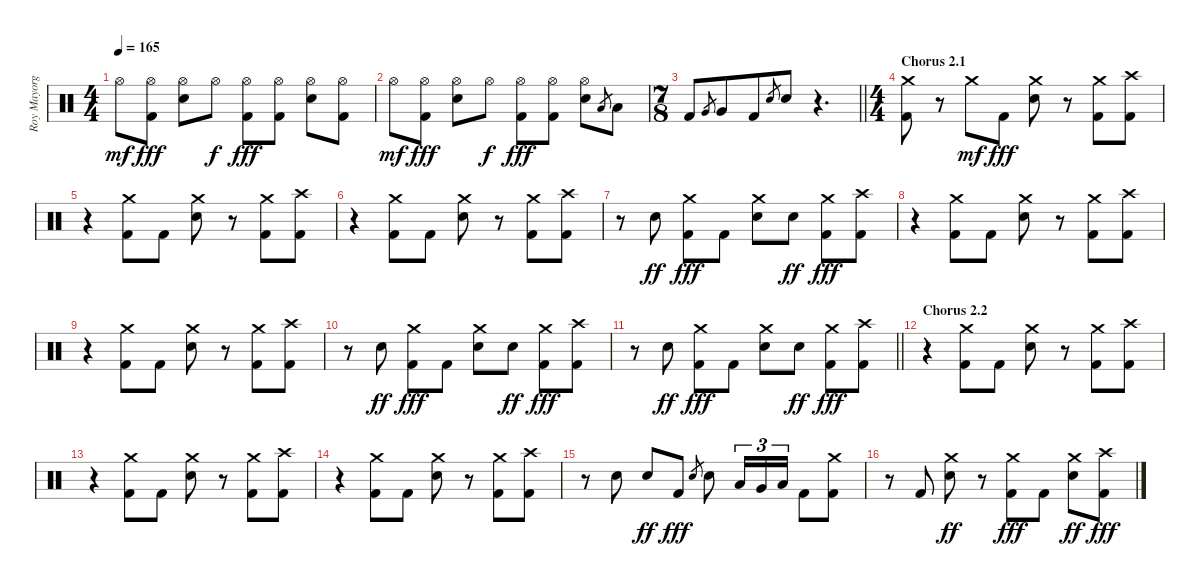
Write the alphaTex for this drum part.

\track ("Roy Mayorga" "Roy Mayorg") {instrument percussion}
\staff {score}
\articulation defaults
\ts (4 4)
\tempo 165
\clef neutral
\ks c "Hi-Hat (open)".8{dy mf}
("Hi-Hat (open)" "Kick (hit) 2").8{dy fff} ("Hi-Hat (open)" "Electric Snare (hit)").8 "Hi-Hat (open)".8{dy f} ("Hi-Hat (open)" "Kick (hit) 2").8{dy fff} ("Hi-Hat (open)" "Kick (hit) 2").8 ("Hi-Hat (open)" "Electric Snare (hit)").8 ("Hi-Hat (open)" "Kick (hit) 2").8 |
"Hi-Hat (open)".8{dy mf} ("Hi-Hat (open)" "Kick (hit) 2").8{dy fff} ("Hi-Hat (open)" "Electric Snare (hit)").8 "Hi-Hat (open)".8{dy f} ("Hi-Hat (open)" "Kick (hit) 2").8{dy fff} ("Hi-Hat (open)" "Kick (hit) 2").8 ("Hi-Hat (open)" "Electric Snare (hit)").8 "Low Tom (hit)".8{gr} "Low Tom (hit)".8 |
\ts (7 8)
\barLineRight lightlight "Kick (hit) 2".8 "Very Low Tom (hit)".8{gr} "Very Low Tom (hit)".8 "Kick (hit) 2".8 "Electric Snare (hit)".8{gr} "Electric Snare (hit)".8
r.4{d} |
\ts (4 4)
\section ("" "Chorus 2.1")
("Crash medium (hit)" "Kick (hit) 2").8 r.8 "Crash medium (hit)".8{dy mf} "Kick (hit) 2".8{dy fff} ("Crash medium (hit)" "Electric Snare (hit)").8 r.8 ("Crash medium (hit)" "Kick (hit) 2").8 ("Crash high (hit)" "Kick (hit) 2").8 |
r.4 ("Crash medium (hit)" "Kick (hit) 2").8 "Kick (hit) 2".8 ("Crash medium (hit)" "Electric Snare (hit)").8 r.8 ("Crash medium (hit)" "Kick (hit) 2").8 ("Crash high (hit)" "Kick (hit) 2").8 |
r.4 ("Crash medium (hit)" "Kick (hit) 2").8 "Kick (hit) 2".8 ("Crash medium (hit)" "Electric Snare (hit)").8 r.8 ("Crash medium (hit)" "Kick (hit) 2").8 ("Crash high (hit)" "Kick (hit) 2").8 |
r.8 "Electric Snare (hit)".8{dy ff} ("Crash medium (hit)" "Kick (hit) 2").8{dy fff} "Kick (hit) 2".8 ("Crash medium (hit)" "Electric Snare (hit)").8 "Electric Snare (hit)".8{dy ff} ("Crash medium (hit)" "Kick (hit) 2").8{dy fff} ("Crash high (hit)" "Kick (hit) 2").8 |
r.4 ("Crash medium (hit)" "Kick (hit) 2").8 "Kick (hit) 2".8 ("Crash medium (hit)" "Electric Snare (hit)").8 r.8 ("Crash medium (hit)" "Kick (hit) 2").8 ("Crash high (hit)" "Kick (hit) 2").8 |
r.4 ("Crash medium (hit)" "Kick (hit) 2").8 "Kick (hit) 2".8 ("Crash medium (hit)" "Electric Snare (hit)").8 r.8 ("Crash medium (hit)" "Kick (hit) 2").8 ("Crash high (hit)" "Kick (hit) 2").8 |
r.8 "Electric Snare (hit)".8{dy ff} ("Crash medium (hit)" "Kick (hit) 2").8{dy fff} "Kick (hit) 2".8 ("Crash medium (hit)" "Electric Snare (hit)").8 "Electric Snare (hit)".8{dy ff} ("Crash medium (hit)" "Kick (hit) 2").8{dy fff} ("Crash high (hit)" "Kick (hit) 2").8 |
\barLineRight lightlight
r.8 "Electric Snare (hit)".8{dy ff} ("Crash medium (hit)" "Kick (hit) 2").8{dy fff} "Kick (hit) 2".8 ("Crash medium (hit)" "Electric Snare (hit)").8 "Electric Snare (hit)".8{dy ff} ("Crash medium (hit)" "Kick (hit) 2").8{dy fff} ("Crash high (hit)" "Kick (hit) 2").8 |
\section ("" "Chorus 2.2")
r.4 ("Crash medium (hit)" "Kick (hit) 2").8 "Kick (hit) 2".8 ("Crash medium (hit)" "Electric Snare (hit)").8 r.8 ("Crash medium (hit)" "Kick (hit) 2").8 ("Crash high (hit)" "Kick (hit) 2").8 |
r.4 ("Crash medium (hit)" "Kick (hit) 2").8 "Kick (hit) 2".8 ("Crash medium (hit)" "Electric Snare (hit)").8 r.8 ("Crash medium (hit)" "Kick (hit) 2").8 ("Crash high (hit)" "Kick (hit) 2").8 |
r.4 ("Crash medium (hit)" "Kick (hit) 2").8 "Kick (hit) 2".8 ("Crash medium (hit)" "Electric Snare (hit)").8 r.8 ("Crash medium (hit)" "Kick (hit) 2").8 ("Crash high (hit)" "Kick (hit) 2").8 |
r.8 "Electric Snare (hit)".8 "Electric Snare (hit)".8{dy ff} "Kick (hit) 2".8{dy fff} "Electric Snare (hit)".8{gr} "Electric Snare (hit)".8 "Low Tom (hit)".16{tu (3 2)} "Very Low Tom (hit)".16{tu (3 2)} "Low Floor Tom (hit)".16{tu (3 2)} "Kick (hit) 2".8 ("Crash medium (hit)" "Kick (hit) 2").8 |
r.8 "Kick (hit) 2".8 ("Crash medium (hit)" "Electric Snare (hit)").8{dy ff} r.8 ("Crash medium (hit)" "Kick (hit) 2").8{dy fff} "Kick (hit) 2".8 ("Crash medium (hit)" "Electric Snare (hit)").8{dy ff} ("Crash high (hit)" "Kick (hit) 2").8{dy fff}
